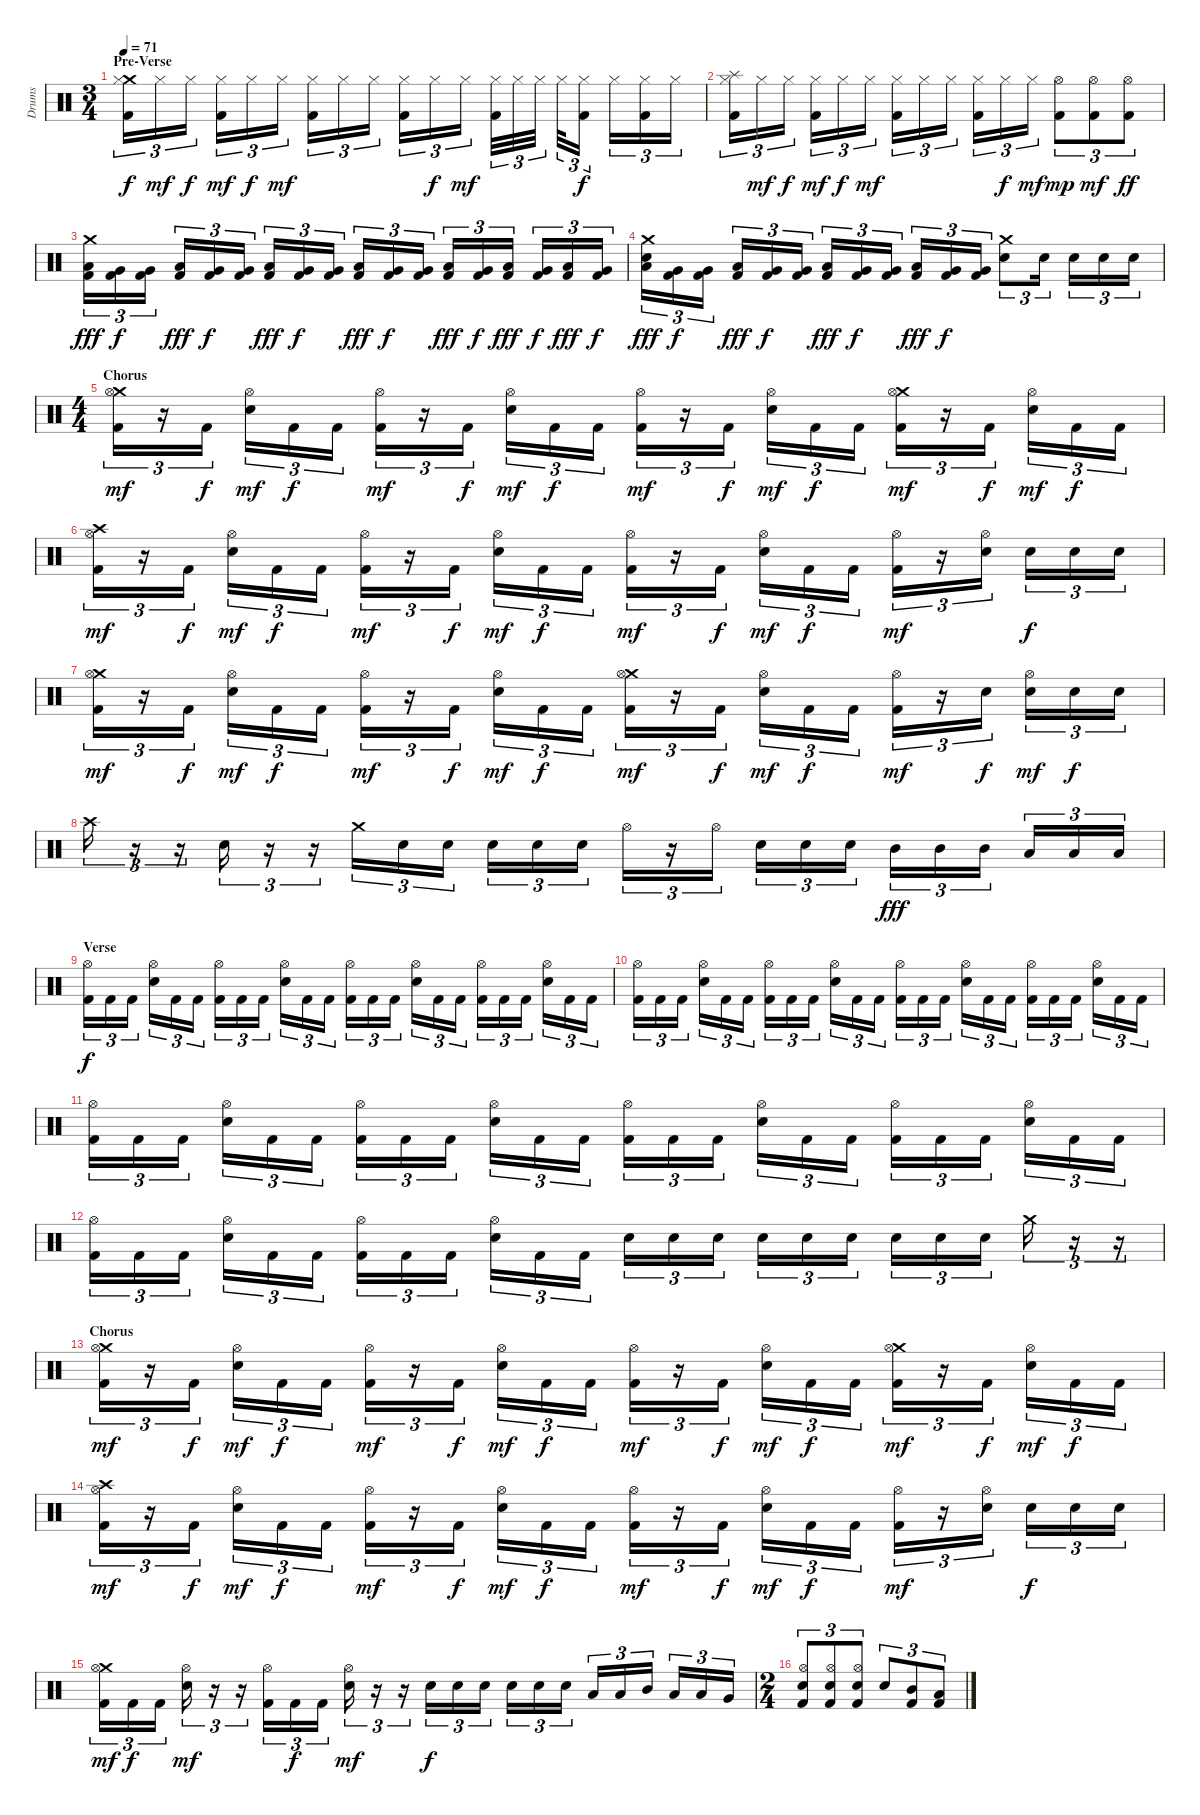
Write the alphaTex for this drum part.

\track ("Drums" "Drums") {instrument percussion}
\staff {score}
\articulation defaults
\ts (3 4)
\section ("" "Pre-Verse")
\tempo 71
\clef neutral
\ks c
("Crash medium (hit)" "Hi-Hat (closed)" "Kick (hit) 2").16{tu (3 2) dy f} "Hi-Hat (closed)".16{tu (3 2) dy mf} "Hi-Hat (closed)".16{tu (3 2) dy f} ("Hi-Hat (closed)" "Kick (hit) 2").16{tu (3 2) dy mf} "Hi-Hat (closed)".16{tu (3 2) dy f} "Hi-Hat (closed)".16{tu (3 2) dy mf} ("Hi-Hat (closed)" "Kick (hit) 2").16{tu (3 2)} "Hi-Hat (closed)".16{tu (3 2)} "Hi-Hat (closed)".16{tu (3 2)} ("Hi-Hat (closed)" "Kick (hit) 2").16{tu (3 2)} "Hi-Hat (closed)".16{tu (3 2) dy f} "Hi-Hat (closed)".16{tu (3 2) dy mf} ("Hi-Hat (closed)" "Kick (hit) 2").32{tu (3 2)} "Hi-Hat (closed)".32{tu (3 2)} "Hi-Hat (closed)".32{tu (3 2)} "Hi-Hat (closed)".32{tu (3 2)} ("Hi-Hat (closed)" "Kick (hit) 2").16{tu (3 2) dy f} "Hi-Hat (closed)".16{tu (3 2)} ("Hi-Hat (closed)" "Kick (hit) 2").16{tu (3 2)} "Hi-Hat (closed)".16{tu (3 2)} |
("Splash (hit)" "Hi-Hat (closed)" "Kick (hit) 2").16{tu (3 2)} "Hi-Hat (closed)".16{tu (3 2) dy mf} "Hi-Hat (closed)".16{tu (3 2) dy f} ("Hi-Hat (closed)" "Kick (hit) 2").16{tu (3 2) dy mf} "Hi-Hat (closed)".16{tu (3 2) dy f} "Hi-Hat (closed)".16{tu (3 2) dy mf} ("Hi-Hat (closed)" "Kick (hit) 2").16{tu (3 2)} "Hi-Hat (closed)".16{tu (3 2)} "Hi-Hat (closed)".16{tu (3 2)} ("Hi-Hat (closed)" "Kick (hit) 2").16{tu (3 2)} "Hi-Hat (closed)".16{tu (3 2) dy f} "Hi-Hat (closed)".16{tu (3 2) dy mf} ("Hi-Hat (open)" "Kick (hit) 2").8{tu (3 2) dy mp} ("Hi-Hat (open)" "Kick (hit) 2").8{tu (3 2) dy mf} ("Hi-Hat (open)" "Kick (hit) 2").8{tu (3 2) dy ff} |
("Crash medium (hit)" "Low Tom (hit)" "Kick (hit) 2").16{tu (3 2) dy fff} ("Very Low Tom (hit)" "Kick (hit) 2").16{tu (3 2) dy f} ("Very Low Tom (hit)" "Kick (hit) 2").16{tu (3 2)} ("Low Tom (hit)" "Kick (hit) 2").16{tu (3 2) dy fff} ("Very Low Tom (hit)" "Kick (hit) 2").16{tu (3 2) dy f} ("Very Low Tom (hit)" "Kick (hit) 2").16{tu (3 2)} ("Low Tom (hit)" "Kick (hit) 2").16{tu (3 2) dy fff} ("Very Low Tom (hit)" "Kick (hit) 2").16{tu (3 2) dy f} ("Very Low Tom (hit)" "Kick (hit) 2").16{tu (3 2)} ("Low Tom (hit)" "Kick (hit) 2").16{tu (3 2) dy fff} ("Very Low Tom (hit)" "Kick (hit) 2").16{tu (3 2) dy f} ("Very Low Tom (hit)" "Kick (hit) 2").16{tu (3 2)} ("Low Tom (hit)" "Kick (hit) 2").16{tu (3 2) dy fff} ("Very Low Tom (hit)" "Kick (hit) 2").16{tu (3 2) dy f} ("Low Tom (hit)" "Kick (hit) 2").16{tu (3 2) dy fff} ("Very Low Tom (hit)" "Kick (hit) 2").16{tu (3 2) dy f} ("Low Tom (hit)" "Kick (hit) 2").16{tu (3 2) dy fff} ("Very Low Tom (hit)" "Kick (hit) 2").16{tu (3 2) dy f} |
("Crash medium (hit)" "Low Tom (hit)" "Electric Snare (hit)").16{tu (3 2) dy fff} ("Very Low Tom (hit)" "Kick (hit) 2").16{tu (3 2) dy f} ("Very Low Tom (hit)" "Kick (hit) 2").16{tu (3 2)} ("Low Tom (hit)" "Kick (hit) 2").16{tu (3 2) dy fff} ("Very Low Tom (hit)" "Kick (hit) 2").16{tu (3 2) dy f} ("Very Low Tom (hit)" "Kick (hit) 2").16{tu (3 2)} ("Low Tom (hit)" "Kick (hit) 2").16{tu (3 2) dy fff} ("Very Low Tom (hit)" "Kick (hit) 2").16{tu (3 2) dy f} ("Very Low Tom (hit)" "Kick (hit) 2").16{tu (3 2)} ("Low Tom (hit)" "Kick (hit) 2").16{tu (3 2) dy fff} ("Very Low Tom (hit)" "Kick (hit) 2").16{tu (3 2) dy f} ("Very Low Tom (hit)" "Kick (hit) 2").16{tu (3 2)} ("Crash medium (hit)" "Electric Snare (hit)").8{tu (3 2)} "Electric Snare (hit)".16{tu (3 2)} "Electric Snare (hit)".16{tu (3 2)} "Electric Snare (hit)".16{tu (3 2)} "Electric Snare (hit)".16{tu (3 2)} |
\ts (4 4)
\section ("" "Chorus")
("Crash medium (hit)" "Hi-Hat (open)" "Kick (hit) 2").16{tu (3 2) dy mf} r.16{tu (3 2)} "Kick (hit) 2".16{tu (3 2) dy f} ("Hi-Hat (open)" "Electric Snare (hit)").16{tu (3 2) dy mf} "Kick (hit) 2".16{tu (3 2) dy f} "Kick (hit) 2".16{tu (3 2)} ("Hi-Hat (open)" "Kick (hit) 2").16{tu (3 2) dy mf} r.16{tu (3 2)} "Kick (hit) 2".16{tu (3 2) dy f} ("Hi-Hat (open)" "Electric Snare (hit)").16{tu (3 2) dy mf} "Kick (hit) 2".16{tu (3 2) dy f} "Kick (hit) 2".16{tu (3 2)} ("Hi-Hat (open)" "Kick (hit) 2").16{tu (3 2) dy mf} r.16{tu (3 2)} "Kick (hit) 2".16{tu (3 2) dy f} ("Hi-Hat (open)" "Electric Snare (hit)").16{tu (3 2) dy mf} "Kick (hit) 2".16{tu (3 2) dy f} "Kick (hit) 2".16{tu (3 2)} ("Crash medium (hit)" "Hi-Hat (open)" "Kick (hit) 2").16{tu (3 2) dy mf} r.16{tu (3 2)} "Kick (hit) 2".16{tu (3 2) dy f} ("Hi-Hat (open)" "Electric Snare (hit)").16{tu (3 2) dy mf} "Kick (hit) 2".16{tu (3 2) dy f} "Kick (hit) 2".16{tu (3 2)} |
("Crash high (hit)" "Hi-Hat (open)" "Kick (hit) 2").16{tu (3 2) dy mf} r.16{tu (3 2)} "Kick (hit) 2".16{tu (3 2) dy f} ("Hi-Hat (open)" "Electric Snare (hit)").16{tu (3 2) dy mf} "Kick (hit) 2".16{tu (3 2) dy f} "Kick (hit) 2".16{tu (3 2)} ("Hi-Hat (open)" "Kick (hit) 2").16{tu (3 2) dy mf} r.16{tu (3 2)} "Kick (hit) 2".16{tu (3 2) dy f} ("Hi-Hat (open)" "Electric Snare (hit)").16{tu (3 2) dy mf} "Kick (hit) 2".16{tu (3 2) dy f} "Kick (hit) 2".16{tu (3 2)} ("Hi-Hat (open)" "Kick (hit) 2").16{tu (3 2) dy mf} r.16{tu (3 2)} "Kick (hit) 2".16{tu (3 2) dy f} ("Hi-Hat (open)" "Electric Snare (hit)").16{tu (3 2) dy mf} "Kick (hit) 2".16{tu (3 2) dy f} "Kick (hit) 2".16{tu (3 2)} ("Hi-Hat (open)" "Kick (hit) 2").16{tu (3 2) dy mf} r.16{tu (3 2)} ("Hi-Hat (open)" "Electric Snare (hit)").16{tu (3 2)} "Electric Snare (hit)".16{tu (3 2) dy f} "Electric Snare (hit)".16{tu (3 2)} "Electric Snare (hit)".16{tu (3 2)} |
("Crash medium (hit)" "Hi-Hat (open)" "Kick (hit) 2").16{tu (3 2) dy mf} r.16{tu (3 2)} "Kick (hit) 2".16{tu (3 2) dy f} ("Hi-Hat (open)" "Electric Snare (hit)").16{tu (3 2) dy mf} "Kick (hit) 2".16{tu (3 2) dy f} "Kick (hit) 2".16{tu (3 2)} ("Hi-Hat (open)" "Kick (hit) 2").16{tu (3 2) dy mf} r.16{tu (3 2)} "Kick (hit) 2".16{tu (3 2) dy f} ("Hi-Hat (open)" "Electric Snare (hit)").16{tu (3 2) dy mf} "Kick (hit) 2".16{tu (3 2) dy f} "Kick (hit) 2".16{tu (3 2)} ("Crash medium (hit)" "Hi-Hat (open)" "Kick (hit) 2").16{tu (3 2) dy mf} r.16{tu (3 2)} "Kick (hit) 2".16{tu (3 2) dy f} ("Hi-Hat (open)" "Electric Snare (hit)").16{tu (3 2) dy mf} "Kick (hit) 2".16{tu (3 2) dy f} "Kick (hit) 2".16{tu (3 2)} ("Hi-Hat (open)" "Kick (hit) 2").16{tu (3 2) dy mf} r.16{tu (3 2)} "Electric Snare (hit)".16{tu (3 2) dy f} ("Hi-Hat (open)" "Electric Snare (hit)").16{tu (3 2) dy mf} "Electric Snare (hit)".16{tu (3 2) dy f} "Electric Snare (hit)".16{tu (3 2)} |
"Crash high (hit)".16{tu (3 2)} r.16{tu (3 2)} r.16{tu (3 2)} "Electric Snare (hit)".16{tu (3 2)} r.16{tu (3 2)} r.16{tu (3 2)} "Crash medium (hit)".16{tu (3 2)} "Electric Snare (hit)".16{tu (3 2)} "Electric Snare (hit)".16{tu (3 2)} "Electric Snare (hit)".16{tu (3 2)} "Electric Snare (hit)".16{tu (3 2)} "Electric Snare (hit)".16{tu (3 2)} "Hi-Hat (open)".16{tu (3 2)} r.16{tu (3 2)} "Hi-Hat (open)".16{tu (3 2)} "Electric Snare (hit)".16{tu (3 2)} "Electric Snare (hit)".16{tu (3 2)} "Electric Snare (hit)".16{tu (3 2)} "Mid Tom (hit)".16{tu (3 2) dy fff} "Mid Tom (hit)".16{tu (3 2)} "Mid Tom (hit)".16{tu (3 2)} "Low Tom (hit)".16{tu (3 2)} "Low Tom (hit)".16{tu (3 2)} "Low Tom (hit)".16{tu (3 2)} |
\section ("" "Verse")
("Hi-Hat (open)" "Kick (hit) 2").16{tu (3 2) dy f} "Kick (hit) 2".16{tu (3 2)} "Kick (hit) 2".16{tu (3 2)} ("Hi-Hat (open)" "Electric Snare (hit)").16{tu (3 2)} "Kick (hit) 2".16{tu (3 2)} "Kick (hit) 2".16{tu (3 2)} ("Hi-Hat (open)" "Kick (hit) 2").16{tu (3 2)} "Kick (hit) 2".16{tu (3 2)} "Kick (hit) 2".16{tu (3 2)} ("Hi-Hat (open)" "Electric Snare (hit)").16{tu (3 2)} "Kick (hit) 2".16{tu (3 2)} "Kick (hit) 2".16{tu (3 2)} ("Hi-Hat (open)" "Kick (hit) 2").16{tu (3 2)} "Kick (hit) 2".16{tu (3 2)} "Kick (hit) 2".16{tu (3 2)} ("Hi-Hat (open)" "Electric Snare (hit)").16{tu (3 2)} "Kick (hit) 2".16{tu (3 2)} "Kick (hit) 2".16{tu (3 2)} ("Hi-Hat (open)" "Kick (hit) 2").16{tu (3 2)} "Kick (hit) 2".16{tu (3 2)} "Kick (hit) 2".16{tu (3 2)} ("Hi-Hat (open)" "Electric Snare (hit)").16{tu (3 2)} "Kick (hit) 2".16{tu (3 2)} "Kick (hit) 2".16{tu (3 2)} |
("Hi-Hat (open)" "Kick (hit) 2").16{tu (3 2)} "Kick (hit) 2".16{tu (3 2)} "Kick (hit) 2".16{tu (3 2)} ("Hi-Hat (open)" "Electric Snare (hit)").16{tu (3 2)} "Kick (hit) 2".16{tu (3 2)} "Kick (hit) 2".16{tu (3 2)} ("Hi-Hat (open)" "Kick (hit) 2").16{tu (3 2)} "Kick (hit) 2".16{tu (3 2)} "Kick (hit) 2".16{tu (3 2)} ("Hi-Hat (open)" "Electric Snare (hit)").16{tu (3 2)} "Kick (hit) 2".16{tu (3 2)} "Kick (hit) 2".16{tu (3 2)} ("Hi-Hat (open)" "Kick (hit) 2").16{tu (3 2)} "Kick (hit) 2".16{tu (3 2)} "Kick (hit) 2".16{tu (3 2)} ("Hi-Hat (open)" "Electric Snare (hit)").16{tu (3 2)} "Kick (hit) 2".16{tu (3 2)} "Kick (hit) 2".16{tu (3 2)} ("Hi-Hat (open)" "Kick (hit) 2").16{tu (3 2)} "Kick (hit) 2".16{tu (3 2)} "Kick (hit) 2".16{tu (3 2)} ("Hi-Hat (open)" "Electric Snare (hit)").16{tu (3 2)} "Kick (hit) 2".16{tu (3 2)} "Kick (hit) 2".16{tu (3 2)} |
("Hi-Hat (open)" "Kick (hit) 2").16{tu (3 2)} "Kick (hit) 2".16{tu (3 2)} "Kick (hit) 2".16{tu (3 2)} ("Hi-Hat (open)" "Electric Snare (hit)").16{tu (3 2)} "Kick (hit) 2".16{tu (3 2)} "Kick (hit) 2".16{tu (3 2)} ("Hi-Hat (open)" "Kick (hit) 2").16{tu (3 2)} "Kick (hit) 2".16{tu (3 2)} "Kick (hit) 2".16{tu (3 2)} ("Hi-Hat (open)" "Electric Snare (hit)").16{tu (3 2)} "Kick (hit) 2".16{tu (3 2)} "Kick (hit) 2".16{tu (3 2)} ("Hi-Hat (open)" "Kick (hit) 2").16{tu (3 2)} "Kick (hit) 2".16{tu (3 2)} "Kick (hit) 2".16{tu (3 2)} ("Hi-Hat (open)" "Electric Snare (hit)").16{tu (3 2)} "Kick (hit) 2".16{tu (3 2)} "Kick (hit) 2".16{tu (3 2)} ("Hi-Hat (open)" "Kick (hit) 2").16{tu (3 2)} "Kick (hit) 2".16{tu (3 2)} "Kick (hit) 2".16{tu (3 2)} ("Hi-Hat (open)" "Electric Snare (hit)").16{tu (3 2)} "Kick (hit) 2".16{tu (3 2)} "Kick (hit) 2".16{tu (3 2)} |
("Hi-Hat (open)" "Kick (hit) 2").16{tu (3 2)} "Kick (hit) 2".16{tu (3 2)} "Kick (hit) 2".16{tu (3 2)} ("Hi-Hat (open)" "Electric Snare (hit)").16{tu (3 2)} "Kick (hit) 2".16{tu (3 2)} "Kick (hit) 2".16{tu (3 2)} ("Hi-Hat (open)" "Kick (hit) 2").16{tu (3 2)} "Kick (hit) 2".16{tu (3 2)} "Kick (hit) 2".16{tu (3 2)} ("Hi-Hat (open)" "Electric Snare (hit)").16{tu (3 2)} "Kick (hit) 2".16{tu (3 2)} "Kick (hit) 2".16{tu (3 2)} "Electric Snare (hit)".16{tu (3 2)} "Electric Snare (hit)".16{tu (3 2)} "Electric Snare (hit)".16{tu (3 2)} "Electric Snare (hit)".16{tu (3 2)} "Electric Snare (hit)".16{tu (3 2)} "Electric Snare (hit)".16{tu (3 2)} "Electric Snare (hit)".16{tu (3 2)} "Electric Snare (hit)".16{tu (3 2)} "Electric Snare (hit)".16{tu (3 2)} "Crash medium (hit)".16{tu (3 2)} r.16{tu (3 2)} r.16{tu (3 2)} |
\section ("" "Chorus")
("Crash medium (hit)" "Hi-Hat (open)" "Kick (hit) 2").16{tu (3 2) dy mf} r.16{tu (3 2)} "Kick (hit) 2".16{tu (3 2) dy f} ("Hi-Hat (open)" "Electric Snare (hit)").16{tu (3 2) dy mf} "Kick (hit) 2".16{tu (3 2) dy f} "Kick (hit) 2".16{tu (3 2)} ("Hi-Hat (open)" "Kick (hit) 2").16{tu (3 2) dy mf} r.16{tu (3 2)} "Kick (hit) 2".16{tu (3 2) dy f} ("Hi-Hat (open)" "Electric Snare (hit)").16{tu (3 2) dy mf} "Kick (hit) 2".16{tu (3 2) dy f} "Kick (hit) 2".16{tu (3 2)} ("Hi-Hat (open)" "Kick (hit) 2").16{tu (3 2) dy mf} r.16{tu (3 2)} "Kick (hit) 2".16{tu (3 2) dy f} ("Hi-Hat (open)" "Electric Snare (hit)").16{tu (3 2) dy mf} "Kick (hit) 2".16{tu (3 2) dy f} "Kick (hit) 2".16{tu (3 2)} ("Crash medium (hit)" "Hi-Hat (open)" "Kick (hit) 2").16{tu (3 2) dy mf} r.16{tu (3 2)} "Kick (hit) 2".16{tu (3 2) dy f} ("Hi-Hat (open)" "Electric Snare (hit)").16{tu (3 2) dy mf} "Kick (hit) 2".16{tu (3 2) dy f} "Kick (hit) 2".16{tu (3 2)} |
("Crash high (hit)" "Hi-Hat (open)" "Kick (hit) 2").16{tu (3 2) dy mf} r.16{tu (3 2)} "Kick (hit) 2".16{tu (3 2) dy f} ("Hi-Hat (open)" "Electric Snare (hit)").16{tu (3 2) dy mf} "Kick (hit) 2".16{tu (3 2) dy f} "Kick (hit) 2".16{tu (3 2)} ("Hi-Hat (open)" "Kick (hit) 2").16{tu (3 2) dy mf} r.16{tu (3 2)} "Kick (hit) 2".16{tu (3 2) dy f} ("Hi-Hat (open)" "Electric Snare (hit)").16{tu (3 2) dy mf} "Kick (hit) 2".16{tu (3 2) dy f} "Kick (hit) 2".16{tu (3 2)} ("Hi-Hat (open)" "Kick (hit) 2").16{tu (3 2) dy mf} r.16{tu (3 2)} "Kick (hit) 2".16{tu (3 2) dy f} ("Hi-Hat (open)" "Electric Snare (hit)").16{tu (3 2) dy mf} "Kick (hit) 2".16{tu (3 2) dy f} "Kick (hit) 2".16{tu (3 2)} ("Hi-Hat (open)" "Kick (hit) 2").16{tu (3 2) dy mf} r.16{tu (3 2)} ("Hi-Hat (open)" "Electric Snare (hit)").16{tu (3 2)} "Electric Snare (hit)".16{tu (3 2) dy f} "Electric Snare (hit)".16{tu (3 2)} "Electric Snare (hit)".16{tu (3 2)} |
("Crash medium (hit)" "Hi-Hat (open)" "Kick (hit) 2").16{tu (3 2) dy mf} "Kick (hit) 2".16{tu (3 2) dy f} "Kick (hit) 2".16{tu (3 2)} ("Hi-Hat (open)" "Electric Snare (hit)").16{tu (3 2) dy mf} r.16{tu (3 2)} r.16{tu (3 2)} ("Hi-Hat (open)" "Kick (hit) 2").16{tu (3 2)} "Kick (hit) 2".16{tu (3 2) dy f} "Kick (hit) 2".16{tu (3 2)} ("Hi-Hat (open)" "Electric Snare (hit)").16{tu (3 2) dy mf} r.16{tu (3 2)} r.16{tu (3 2)} "Electric Snare (hit)".16{tu (3 2) dy f} "Electric Snare (hit)".16{tu (3 2)} "Electric Snare (hit)".16{tu (3 2)} "Electric Snare (hit)".16{tu (3 2)} "Electric Snare (hit)".16{tu (3 2)} "Electric Snare (hit)".16{tu (3 2)} "Low Tom (hit)".16{tu (3 2)} "Low Tom (hit)".16{tu (3 2)} "Mid Tom (hit)".16{tu (3 2)} "Low Tom (hit)".16{tu (3 2)} "Low Tom (hit)".16{tu (3 2)} "Very Low Tom (hit)".16{tu (3 2)} |
\ts (2 4)
("Hi-Hat (open)" "Electric Snare (hit)" "Kick (hit) 2").8{tu (3 2)} ("Hi-Hat (open)" "Electric Snare (hit)" "Kick (hit) 2").8{tu (3 2)} ("Hi-Hat (open)" "Electric Snare (hit)" "Kick (hit) 2").8{tu (3 2)} "Electric Snare (hit)".8{tu (3 2)} ("Mid Tom (hit)" "Kick (hit) 2").8{tu (3 2)} ("Low Tom (hit)" "Kick (hit) 2").8{tu (3 2)}
